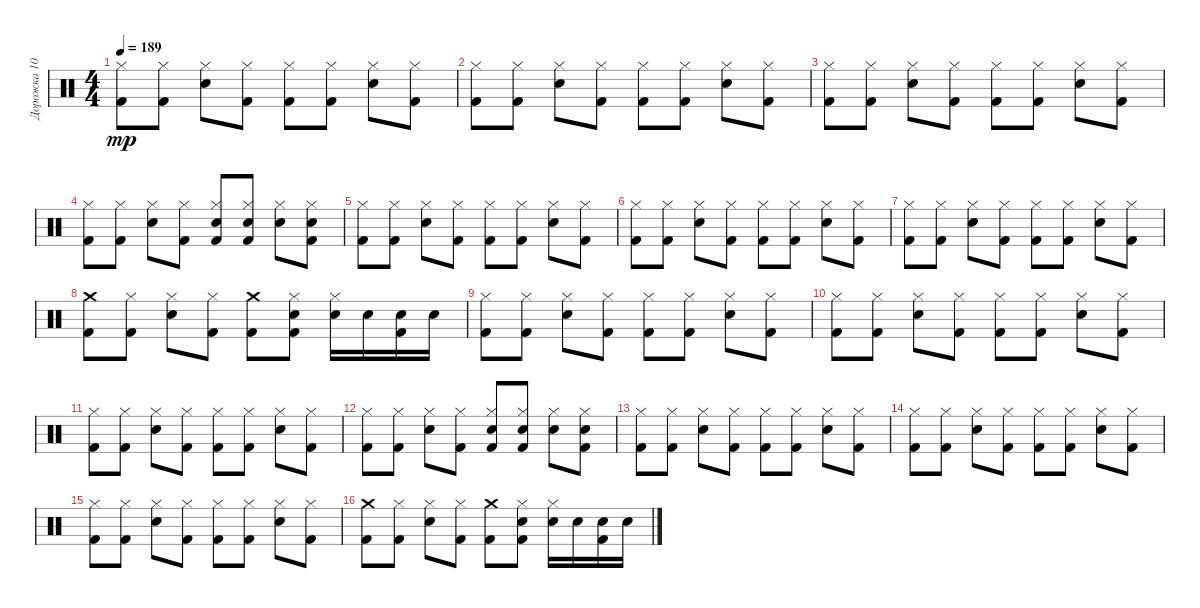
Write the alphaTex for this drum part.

\track ("Дорожка 10" "Дорожка 10") {instrument percussion}
\staff {score}
\articulation defaults
\ts (4 4)
\tempo 189
\clef neutral
\ks c
("Kick (hit) 2" "Hi-Hat (closed)").8{dy mp} ("Kick (hit) 2" "Hi-Hat (closed)").8 ("Snare (hit) 2" "Hi-Hat (closed)").8 ("Kick (hit) 2" "Hi-Hat (closed)").8 ("Kick (hit) 2" "Hi-Hat (closed)").8 ("Kick (hit) 2" "Hi-Hat (closed)").8 ("Snare (hit) 2" "Hi-Hat (closed)").8 ("Kick (hit) 2" "Hi-Hat (closed)").8 |
("Kick (hit) 2" "Hi-Hat (closed)").8 ("Kick (hit) 2" "Hi-Hat (closed)").8 ("Snare (hit) 2" "Hi-Hat (closed)").8 ("Kick (hit) 2" "Hi-Hat (closed)").8 ("Kick (hit) 2" "Hi-Hat (closed)").8 ("Kick (hit) 2" "Hi-Hat (closed)").8 ("Snare (hit) 2" "Hi-Hat (closed)").8 ("Kick (hit) 2" "Hi-Hat (closed)").8 |
("Kick (hit) 2" "Hi-Hat (closed)").8 ("Kick (hit) 2" "Hi-Hat (closed)").8 ("Snare (hit) 2" "Hi-Hat (closed)").8 ("Kick (hit) 2" "Hi-Hat (closed)").8 ("Kick (hit) 2" "Hi-Hat (closed)").8 ("Kick (hit) 2" "Hi-Hat (closed)").8 ("Snare (hit) 2" "Hi-Hat (closed)").8 ("Kick (hit) 2" "Hi-Hat (closed)").8 |
("Kick (hit) 2" "Hi-Hat (closed)").8 ("Kick (hit) 2" "Hi-Hat (closed)").8 ("Snare (hit) 2" "Hi-Hat (closed)").8 ("Kick (hit) 2" "Hi-Hat (closed)").8 ("Kick (hit) 2" "Snare (hit) 2" "Hi-Hat (closed)").8 ("Kick (hit) 2" "Snare (hit) 2" "Hi-Hat (closed)").8 ("Snare (hit) 2" "Hi-Hat (closed)").8 ("Kick (hit) 2" "Snare (hit) 2" "Hi-Hat (closed)").8 |
("Kick (hit) 2" "Hi-Hat (closed)").8 ("Kick (hit) 2" "Hi-Hat (closed)").8 ("Snare (hit) 2" "Hi-Hat (closed)").8 ("Kick (hit) 2" "Hi-Hat (closed)").8 ("Kick (hit) 2" "Hi-Hat (closed)").8 ("Kick (hit) 2" "Hi-Hat (closed)").8 ("Snare (hit) 2" "Hi-Hat (closed)").8 ("Kick (hit) 2" "Hi-Hat (closed)").8 |
("Kick (hit) 2" "Hi-Hat (closed)").8 ("Kick (hit) 2" "Hi-Hat (closed)").8 ("Snare (hit) 2" "Hi-Hat (closed)").8 ("Kick (hit) 2" "Hi-Hat (closed)").8 ("Kick (hit) 2" "Hi-Hat (closed)").8 ("Kick (hit) 2" "Hi-Hat (closed)").8 ("Snare (hit) 2" "Hi-Hat (closed)").8 ("Kick (hit) 2" "Hi-Hat (closed)").8 |
("Kick (hit) 2" "Hi-Hat (closed)").8 ("Kick (hit) 2" "Hi-Hat (closed)").8 ("Snare (hit) 2" "Hi-Hat (closed)").8 ("Kick (hit) 2" "Hi-Hat (closed)").8 ("Kick (hit) 2" "Hi-Hat (closed)").8 ("Kick (hit) 2" "Hi-Hat (closed)").8 ("Snare (hit) 2" "Hi-Hat (closed)").8 ("Kick (hit) 2" "Hi-Hat (closed)").8 |
("Kick (hit) 2" "Crash medium (hit)").8 ("Kick (hit) 2" "Hi-Hat (closed)").8 ("Snare (hit) 2" "Hi-Hat (closed)").8 ("Kick (hit) 2" "Hi-Hat (closed)").8 ("Kick (hit) 2" "Crash medium (hit)").8 ("Kick (hit) 2" "Snare (hit) 2" "Hi-Hat (closed)").8 ("Snare (hit) 2" "Hi-Hat (closed)").16 "Snare (hit) 2".16 ("Kick (hit) 2" "Snare (hit) 2").16 "Snare (hit) 2".16 |
("Kick (hit) 2" "Hi-Hat (closed)").8 ("Kick (hit) 2" "Hi-Hat (closed)").8 ("Snare (hit) 2" "Hi-Hat (closed)").8 ("Kick (hit) 2" "Hi-Hat (closed)").8 ("Kick (hit) 2" "Hi-Hat (closed)").8 ("Kick (hit) 2" "Hi-Hat (closed)").8 ("Snare (hit) 2" "Hi-Hat (closed)").8 ("Kick (hit) 2" "Hi-Hat (closed)").8 |
("Kick (hit) 2" "Hi-Hat (closed)").8 ("Kick (hit) 2" "Hi-Hat (closed)").8 ("Snare (hit) 2" "Hi-Hat (closed)").8 ("Kick (hit) 2" "Hi-Hat (closed)").8 ("Kick (hit) 2" "Hi-Hat (closed)").8 ("Kick (hit) 2" "Hi-Hat (closed)").8 ("Snare (hit) 2" "Hi-Hat (closed)").8 ("Kick (hit) 2" "Hi-Hat (closed)").8 |
("Kick (hit) 2" "Hi-Hat (closed)").8 ("Kick (hit) 2" "Hi-Hat (closed)").8 ("Snare (hit) 2" "Hi-Hat (closed)").8 ("Kick (hit) 2" "Hi-Hat (closed)").8 ("Kick (hit) 2" "Hi-Hat (closed)").8 ("Kick (hit) 2" "Hi-Hat (closed)").8 ("Snare (hit) 2" "Hi-Hat (closed)").8 ("Kick (hit) 2" "Hi-Hat (closed)").8 |
("Kick (hit) 2" "Hi-Hat (closed)").8 ("Kick (hit) 2" "Hi-Hat (closed)").8 ("Snare (hit) 2" "Hi-Hat (closed)").8 ("Kick (hit) 2" "Hi-Hat (closed)").8 ("Kick (hit) 2" "Snare (hit) 2" "Hi-Hat (closed)").8 ("Kick (hit) 2" "Snare (hit) 2" "Hi-Hat (closed)").8 ("Snare (hit) 2" "Hi-Hat (closed)").8 ("Kick (hit) 2" "Snare (hit) 2" "Hi-Hat (closed)").8 |
("Kick (hit) 2" "Hi-Hat (closed)").8 ("Kick (hit) 2" "Hi-Hat (closed)").8 ("Snare (hit) 2" "Hi-Hat (closed)").8 ("Kick (hit) 2" "Hi-Hat (closed)").8 ("Kick (hit) 2" "Hi-Hat (closed)").8 ("Kick (hit) 2" "Hi-Hat (closed)").8 ("Snare (hit) 2" "Hi-Hat (closed)").8 ("Kick (hit) 2" "Hi-Hat (closed)").8 |
("Kick (hit) 2" "Hi-Hat (closed)").8 ("Kick (hit) 2" "Hi-Hat (closed)").8 ("Snare (hit) 2" "Hi-Hat (closed)").8 ("Kick (hit) 2" "Hi-Hat (closed)").8 ("Kick (hit) 2" "Hi-Hat (closed)").8 ("Kick (hit) 2" "Hi-Hat (closed)").8 ("Snare (hit) 2" "Hi-Hat (closed)").8 ("Kick (hit) 2" "Hi-Hat (closed)").8 |
("Kick (hit) 2" "Hi-Hat (closed)").8 ("Kick (hit) 2" "Hi-Hat (closed)").8 ("Snare (hit) 2" "Hi-Hat (closed)").8 ("Kick (hit) 2" "Hi-Hat (closed)").8 ("Kick (hit) 2" "Hi-Hat (closed)").8 ("Kick (hit) 2" "Hi-Hat (closed)").8 ("Snare (hit) 2" "Hi-Hat (closed)").8 ("Kick (hit) 2" "Hi-Hat (closed)").8 |
("Kick (hit) 2" "Crash medium (hit)").8 ("Kick (hit) 2" "Hi-Hat (closed)").8 ("Snare (hit) 2" "Hi-Hat (closed)").8 ("Kick (hit) 2" "Hi-Hat (closed)").8 ("Kick (hit) 2" "Crash medium (hit)").8 ("Kick (hit) 2" "Snare (hit) 2" "Hi-Hat (closed)").8 ("Snare (hit) 2" "Hi-Hat (closed)").16 "Snare (hit) 2".16 ("Kick (hit) 2" "Snare (hit) 2").16 "Snare (hit) 2".16
